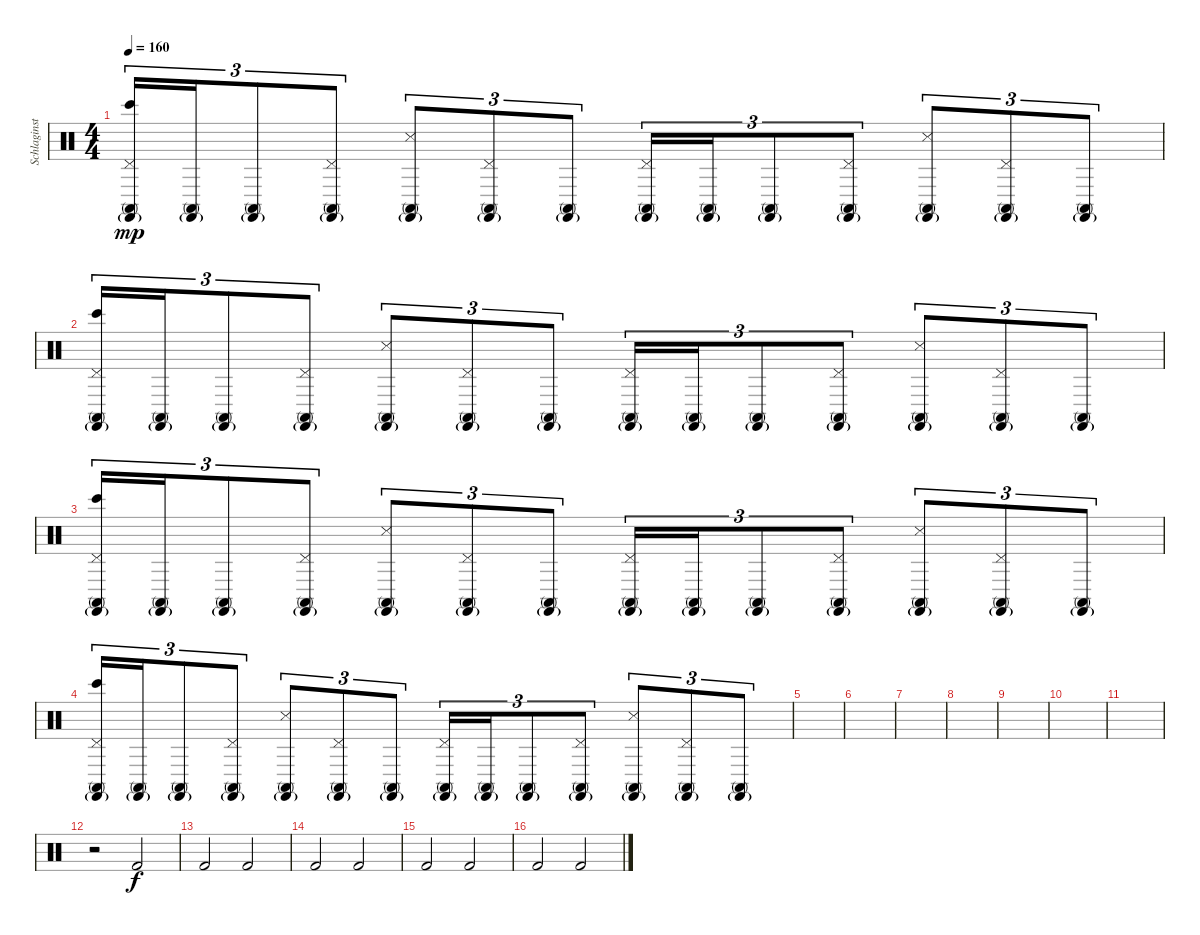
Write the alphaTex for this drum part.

\track ("Schlaginstrumente - Auswahl" "Schlaginst") {instrument percussion}
\staff {score}
\articulation defaults
\ts (4 4)
\tempo 160
\clef neutral
\ks c
("Pedal Hi-Hat (hit)" "Castanets (hit)"{g} "Bongo High (hit)" "Conga high (mute)").16{tu (3 2) dy mp} ("Castanets (hit)"{g} "Conga high (mute)").16{tu (3 2)} ("Castanets (hit)"{g} "Conga high (mute)").8{tu (3 2)} ("Pedal Hi-Hat (hit)" "Castanets (hit)"{g} "Conga high (mute)").8{tu (3 2)} ("Castanets (hit)"{g} "Snare (side stick) 3" "Conga high (mute)").8{tu (3 2)} ("Pedal Hi-Hat (hit)" "Castanets (hit)"{g} "Conga high (mute)").8{tu (3 2)} ("Castanets (hit)"{g} "Conga high (mute)").8{tu (3 2)} ("Pedal Hi-Hat (hit)" "Castanets (hit)"{g} "Conga high (mute)").16{tu (3 2)} ("Castanets (hit)"{g} "Conga high (mute)").16{tu (3 2)} ("Castanets (hit)"{g} "Conga high (mute)").8{tu (3 2)} ("Pedal Hi-Hat (hit)" "Castanets (hit)"{g} "Conga high (mute)").8{tu (3 2)} ("Castanets (hit)"{g} "Snare (side stick) 3" "Conga high (mute)").8{tu (3 2)} ("Pedal Hi-Hat (hit)" "Castanets (hit)"{g} "Conga high (mute)").8{tu (3 2)} ("Castanets (hit)"{g} "Conga high (mute)").8{tu (3 2)} |
("Pedal Hi-Hat (hit)" "Castanets (hit)"{g} "Bongo High (hit)" "Conga high (mute)").16{tu (3 2)} ("Castanets (hit)"{g} "Conga high (mute)").16{tu (3 2)} ("Castanets (hit)"{g} "Conga high (mute)").8{tu (3 2)} ("Pedal Hi-Hat (hit)" "Castanets (hit)"{g} "Conga high (mute)").8{tu (3 2)} ("Castanets (hit)"{g} "Snare (side stick) 3" "Conga high (mute)").8{tu (3 2)} ("Pedal Hi-Hat (hit)" "Castanets (hit)"{g} "Conga high (mute)").8{tu (3 2)} ("Castanets (hit)"{g} "Conga high (mute)").8{tu (3 2)} ("Pedal Hi-Hat (hit)" "Castanets (hit)"{g} "Conga high (mute)").16{tu (3 2)} ("Castanets (hit)"{g} "Conga high (mute)").16{tu (3 2)} ("Castanets (hit)"{g} "Conga high (mute)").8{tu (3 2)} ("Pedal Hi-Hat (hit)" "Castanets (hit)"{g} "Conga high (mute)").8{tu (3 2)} ("Castanets (hit)"{g} "Snare (side stick) 3" "Conga high (mute)").8{tu (3 2)} ("Pedal Hi-Hat (hit)" "Castanets (hit)"{g} "Conga high (mute)").8{tu (3 2)} ("Castanets (hit)"{g} "Conga high (mute)").8{tu (3 2)} |
("Pedal Hi-Hat (hit)" "Castanets (hit)"{g} "Bongo High (hit)" "Conga high (mute)").16{tu (3 2)} ("Castanets (hit)"{g} "Conga high (mute)").16{tu (3 2)} ("Castanets (hit)"{g} "Conga high (mute)").8{tu (3 2)} ("Pedal Hi-Hat (hit)" "Castanets (hit)"{g} "Conga high (mute)").8{tu (3 2)} ("Castanets (hit)"{g} "Snare (side stick) 3" "Conga high (mute)").8{tu (3 2)} ("Pedal Hi-Hat (hit)" "Castanets (hit)"{g} "Conga high (mute)").8{tu (3 2)} ("Castanets (hit)"{g} "Conga high (mute)").8{tu (3 2)} ("Pedal Hi-Hat (hit)" "Castanets (hit)"{g} "Conga high (mute)").16{tu (3 2)} ("Castanets (hit)"{g} "Conga high (mute)").16{tu (3 2)} ("Castanets (hit)"{g} "Conga high (mute)").8{tu (3 2)} ("Pedal Hi-Hat (hit)" "Castanets (hit)"{g} "Conga high (mute)").8{tu (3 2)} ("Castanets (hit)"{g} "Snare (side stick) 3" "Conga high (mute)").8{tu (3 2)} ("Pedal Hi-Hat (hit)" "Castanets (hit)"{g} "Conga high (mute)").8{tu (3 2)} ("Castanets (hit)"{g} "Conga high (mute)").8{tu (3 2)} |
("Pedal Hi-Hat (hit)" "Castanets (hit)"{g} "Bongo High (hit)" "Conga high (mute)").16{tu (3 2)} ("Castanets (hit)"{g} "Conga high (mute)").16{tu (3 2)} ("Castanets (hit)"{g} "Conga high (mute)").8{tu (3 2)} ("Pedal Hi-Hat (hit)" "Castanets (hit)"{g} "Conga high (mute)").8{tu (3 2)} ("Castanets (hit)"{g} "Snare (side stick) 3" "Conga high (mute)").8{tu (3 2)} ("Pedal Hi-Hat (hit)" "Castanets (hit)"{g} "Conga high (mute)").8{tu (3 2)} ("Castanets (hit)"{g} "Conga high (mute)").8{tu (3 2)} ("Pedal Hi-Hat (hit)" "Castanets (hit)"{g} "Conga high (mute)").16{tu (3 2)} ("Castanets (hit)"{g} "Conga high (mute)").16{tu (3 2)} ("Castanets (hit)"{g} "Conga high (mute)").8{tu (3 2)} ("Pedal Hi-Hat (hit)" "Castanets (hit)"{g} "Conga high (mute)").8{tu (3 2)} ("Castanets (hit)"{g} "Snare (side stick) 3" "Conga high (mute)").8{tu (3 2)} ("Pedal Hi-Hat (hit)" "Castanets (hit)"{g} "Conga high (mute)").8{tu (3 2)} ("Castanets (hit)"{g} "Conga high (mute)").8{tu (3 2)} |
|
|
|
|
|
|
|
r.2 "Kick (hit) 2".2{dy f} |
"Kick (hit) 2".2 "Kick (hit) 2".2 |
"Kick (hit) 2".2 "Kick (hit) 2".2 |
"Kick (hit) 2".2 "Kick (hit) 2".2 |
"Kick (hit) 2".2 "Kick (hit) 2".2
